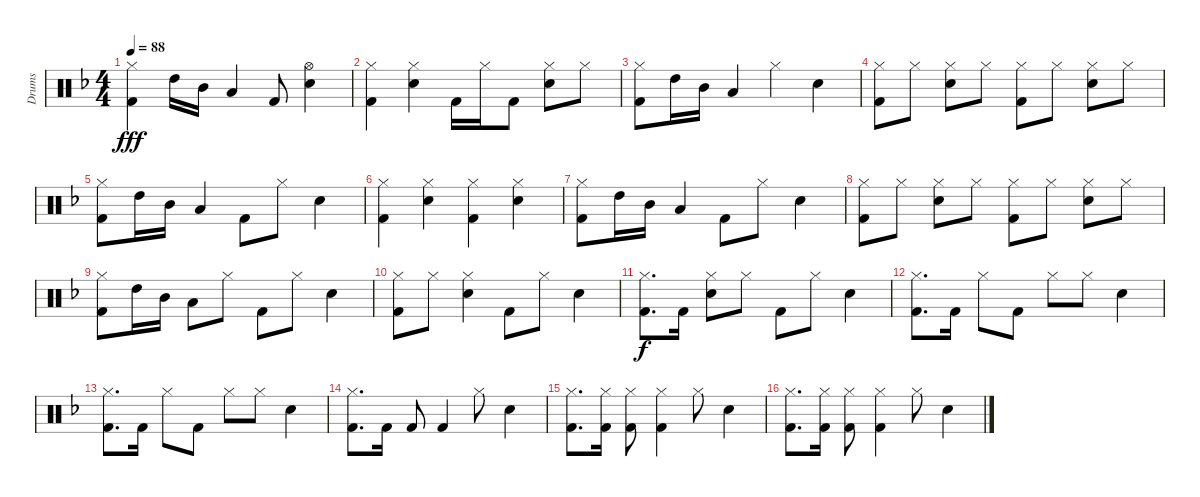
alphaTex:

\track ("Drums" "Drums") {instrument percussion}
\staff {score}
\articulation defaults
\ts (4 4)
\tempo 88
\clef neutral
\ks dminor
("Hi-Hat (closed)" "Kick (hit) 2").4{dy fff} "High Tom (hit)".16 "Mid Tom (hit)".16 "Low Tom (hit)".4 "Kick (hit) 2".8 ("Hi-Hat (open)" "Snare (hit) 2").4 |
("Hi-Hat (closed)" "Kick (hit) 2").4 ("Hi-Hat (closed)" "Snare (hit) 2").4 "Kick (hit) 2".16 "Hi-Hat (closed)".16 "Kick (hit) 2".8 ("Hi-Hat (closed)" "Snare (hit) 2").8 "Hi-Hat (closed)".8 |
("Hi-Hat (closed)" "Kick (hit) 2").8 "High Tom (hit)".16 "Mid Tom (hit)".16 "Low Tom (hit)".4 "Hi-Hat (closed)".4 "Snare (hit) 2".4 |
("Hi-Hat (closed)" "Kick (hit) 2").8 "Hi-Hat (closed)".8 ("Hi-Hat (closed)" "Snare (hit) 2").8 "Hi-Hat (closed)".8 ("Hi-Hat (closed)" "Kick (hit) 2").8 "Hi-Hat (closed)".8 ("Hi-Hat (closed)" "Snare (hit) 2").8 "Hi-Hat (closed)".8 |
("Hi-Hat (closed)" "Kick (hit) 2").8 "High Tom (hit)".16 "Mid Tom (hit)".16 "Low Tom (hit)".4 "Kick (hit) 2".8 "Hi-Hat (closed)".8 "Snare (hit) 2".4 |
("Hi-Hat (closed)" "Kick (hit) 2").4 ("Hi-Hat (closed)" "Snare (hit) 2").4 ("Hi-Hat (closed)" "Kick (hit) 2").4 ("Hi-Hat (closed)" "Snare (hit) 2").4 |
("Hi-Hat (closed)" "Kick (hit) 2").8 "High Tom (hit)".16 "Mid Tom (hit)".16 "Low Tom (hit)".4 "Kick (hit) 2".8 "Hi-Hat (closed)".8 "Snare (hit) 2".4 |
("Hi-Hat (closed)" "Kick (hit) 2").8 "Hi-Hat (closed)".8 ("Hi-Hat (closed)" "Snare (hit) 2").8 "Hi-Hat (closed)".8 ("Hi-Hat (closed)" "Kick (hit) 2").8 "Hi-Hat (closed)".8 ("Hi-Hat (closed)" "Snare (hit) 2").8 "Hi-Hat (closed)".8 |
("Hi-Hat (closed)" "Kick (hit) 2").8 "High Tom (hit)".16 "Mid Tom (hit)".16 "Low Tom (hit)".8 "Hi-Hat (closed)".8 "Kick (hit) 2".8 "Hi-Hat (closed)".8 "Snare (hit) 2".4 |
("Hi-Hat (closed)" "Kick (hit) 2").8 "Hi-Hat (closed)".8 ("Hi-Hat (closed)" "Snare (hit) 2").4 "Kick (hit) 2".8 "Hi-Hat (closed)".8 "Snare (hit) 2".4 |
("Hi-Hat (closed)" "Kick (hit) 2").8{d dy f} "Kick (hit) 2".16 ("Hi-Hat (closed)" "Snare (hit) 2").8 "Hi-Hat (closed)".8 "Kick (hit) 2".8 "Hi-Hat (closed)".8 "Snare (hit) 2".4 |
("Hi-Hat (closed)" "Kick (hit) 2").8{d} "Kick (hit) 2".16 "Hi-Hat (closed)".8 "Kick (hit) 2".8 "Hi-Hat (closed)".8 "Hi-Hat (closed)".8 "Snare (hit) 2".4 |
("Hi-Hat (closed)" "Kick (hit) 2").8{d} "Kick (hit) 2".16 "Hi-Hat (closed)".8 "Kick (hit) 2".8 "Hi-Hat (closed)".8 "Hi-Hat (closed)".8 "Snare (hit) 2".4 |
("Hi-Hat (closed)" "Kick (hit) 2").8{d} "Kick (hit) 2".16 "Kick (hit) 2".8 "Kick (hit) 2".4 "Hi-Hat (closed)".8 "Snare (hit) 2".4 |
("Hi-Hat (closed)" "Kick (hit) 2").8{d} ("Hi-Hat (closed)" "Kick (hit) 2").16 ("Hi-Hat (closed)" "Kick (hit) 2").8 ("Hi-Hat (closed)" "Kick (hit) 2").4 "Hi-Hat (closed)".8 "Snare (hit) 2".4 |
("Hi-Hat (closed)" "Kick (hit) 2").8{d} ("Hi-Hat (closed)" "Kick (hit) 2").16 ("Hi-Hat (closed)" "Kick (hit) 2").8 ("Hi-Hat (closed)" "Kick (hit) 2").4 "Hi-Hat (closed)".8 "Snare (hit) 2".4
